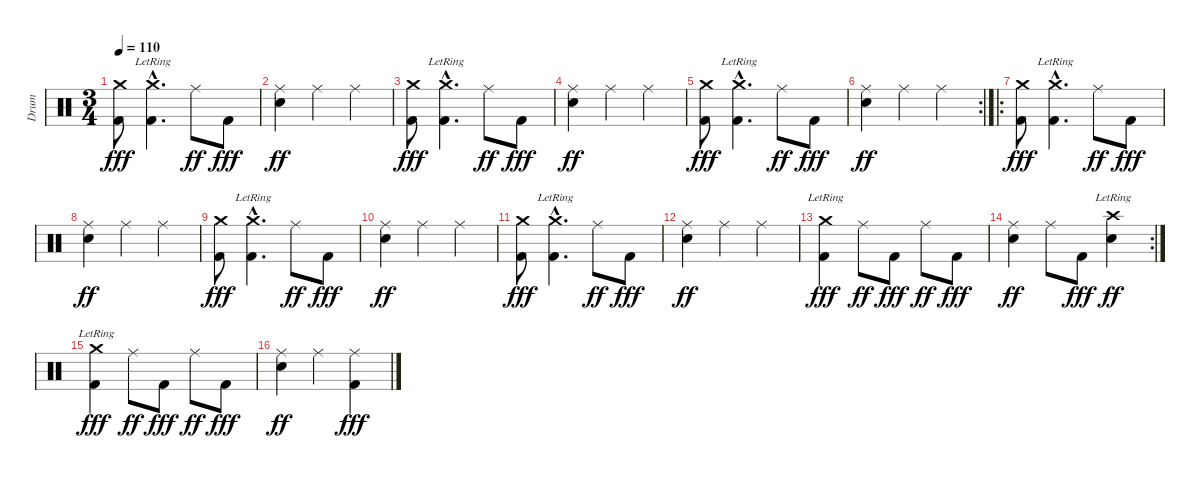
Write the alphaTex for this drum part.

\track ("Drum" "Drum") {instrument percussion}
\staff {score}
\articulation defaults
\ts (3 4)
\tempo 110
\clef neutral
\ks c
("Crash medium (hit)" "Kick (hit) 2").8{dy fff} ("Crash medium (hit)"{hac lr} "Kick (hit) 2"{hac}).4{d} "Ride (middle)".8{dy ff} "Kick (hit) 2".8{dy fff} |
("Ride (middle)" "Snare (hit) 2").4{dy ff} "Ride (middle)".4 "Ride (middle)".4 |
("Crash medium (hit)" "Kick (hit) 2").8{dy fff} ("Crash medium (hit)"{hac lr} "Kick (hit) 2"{hac}).4{d} "Ride (middle)".8{dy ff} "Kick (hit) 2".8{dy fff} |
("Ride (middle)" "Snare (hit) 2").4{dy ff} "Ride (middle)".4 "Ride (middle)".4 |
("Crash medium (hit)" "Kick (hit) 2").8{dy fff} ("Crash medium (hit)"{hac lr} "Kick (hit) 2"{hac}).4{d} "Ride (middle)".8{dy ff} "Kick (hit) 2".8{dy fff} |
\rc 2
("Ride (middle)" "Snare (hit) 2").4{dy ff} "Ride (middle)".4 "Ride (middle)".4 |
\ro
("Crash medium (hit)" "Kick (hit) 2").8{dy fff} ("Crash medium (hit)"{hac lr} "Kick (hit) 2"{hac}).4{d} "Ride (middle)".8{dy ff} "Kick (hit) 2".8{dy fff} |
("Ride (middle)" "Snare (hit) 2").4{dy ff} "Ride (middle)".4 "Ride (middle)".4 |
("Crash medium (hit)" "Kick (hit) 2").8{dy fff} ("Crash medium (hit)"{hac lr} "Kick (hit) 2"{hac}).4{d} "Ride (middle)".8{dy ff} "Kick (hit) 2".8{dy fff} |
("Ride (middle)" "Snare (hit) 2").4{dy ff} "Ride (middle)".4 "Ride (middle)".4 |
("Crash medium (hit)" "Kick (hit) 2").8{dy fff} ("Crash medium (hit)"{hac lr} "Kick (hit) 2"{hac}).4{d} "Ride (middle)".8{dy ff} "Kick (hit) 2".8{dy fff} |
("Ride (middle)" "Snare (hit) 2").4{dy ff} "Ride (middle)".4 "Ride (middle)".4 |
("Crash medium (hit)"{lr} "Kick (hit) 2").4{dy fff} "Ride (middle)".8{dy ff} "Kick (hit) 2".8{dy fff} "Ride (middle)".8{dy ff} "Kick (hit) 2".8{dy fff} |
\rc 2
("Ride (middle)" "Snare (hit) 2").4{dy ff} "Ride (middle)".8 "Kick (hit) 2".8{dy fff} ("Crash high (hit)"{lr} "Snare (hit) 2").4{dy ff} |
("Crash medium (hit)"{lr} "Kick (hit) 2").4{dy fff} "Ride (middle)".8{dy ff} "Kick (hit) 2".8{dy fff} "Ride (middle)".8{dy ff} "Kick (hit) 2".8{dy fff} |
("Ride (middle)" "Snare (hit) 2").4{dy ff} "Ride (middle)".4 ("Ride (middle)" "Kick (hit) 2").4{dy fff}
